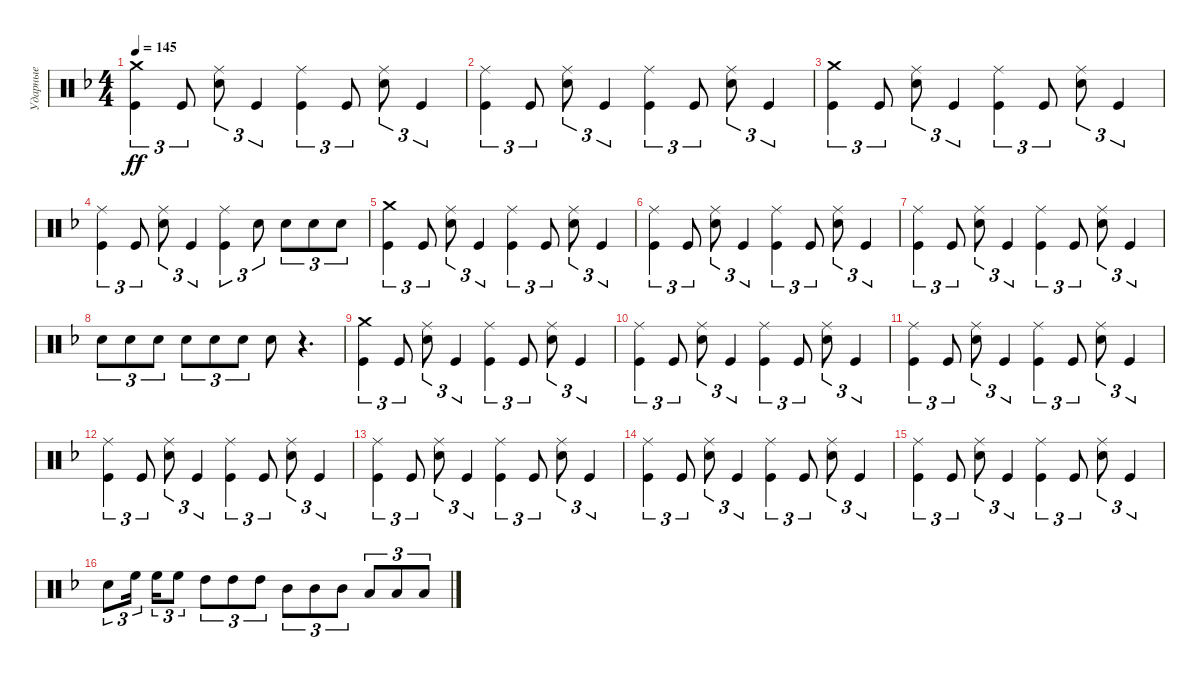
\track ("Ударные" "Ударные") {instrument percussion}
\staff {score}
\articulation defaults
\ts (4 4)
\tempo 145
\clef neutral
\ks dminor
("Crash medium (hit)" "Kick (hit)").4{tu (3 2) dy ff} "Kick (hit)".8{tu (3 2)} ("Ride (middle)" "Electric Snare (hit)").8{tu (3 2)} "Kick (hit)".4{tu (3 2)} ("Ride (middle)" "Kick (hit)").4{tu (3 2)} "Kick (hit)".8{tu (3 2)} ("Ride (middle)" "Electric Snare (hit)").8{tu (3 2)} "Kick (hit)".4{tu (3 2)} |
("Ride (middle)" "Kick (hit)").4{tu (3 2)} "Kick (hit)".8{tu (3 2)} ("Ride (middle)" "Electric Snare (hit)").8{tu (3 2)} "Kick (hit)".4{tu (3 2)} ("Ride (middle)" "Kick (hit)").4{tu (3 2)} "Kick (hit)".8{tu (3 2)} ("Ride (middle)" "Electric Snare (hit)").8{tu (3 2)} "Kick (hit)".4{tu (3 2)} |
("Crash medium (hit)" "Kick (hit)").4{tu (3 2)} "Kick (hit)".8{tu (3 2)} ("Ride (middle)" "Electric Snare (hit)").8{tu (3 2)} "Kick (hit)".4{tu (3 2)} ("Ride (middle)" "Kick (hit)").4{tu (3 2)} "Kick (hit)".8{tu (3 2)} ("Ride (middle)" "Electric Snare (hit)").8{tu (3 2)} "Kick (hit)".4{tu (3 2)} |
("Ride (middle)" "Kick (hit)").4{tu (3 2)} "Kick (hit)".8{tu (3 2)} ("Ride (middle)" "Electric Snare (hit)").8{tu (3 2)} "Kick (hit)".4{tu (3 2)} ("Ride (middle)" "Kick (hit)").4{tu (3 2)} "Electric Snare (hit)".8{tu (3 2)} "Electric Snare (hit)".8{tu (3 2)} "Electric Snare (hit)".8{tu (3 2)} "Electric Snare (hit)".8{tu (3 2)} |
("Crash medium (hit)" "Kick (hit)").4{tu (3 2)} "Kick (hit)".8{tu (3 2)} ("Ride (middle)" "Electric Snare (hit)").8{tu (3 2)} "Kick (hit)".4{tu (3 2)} ("Ride (middle)" "Kick (hit)").4{tu (3 2)} "Kick (hit)".8{tu (3 2)} ("Ride (middle)" "Electric Snare (hit)").8{tu (3 2)} "Kick (hit)".4{tu (3 2)} |
("Ride (middle)" "Kick (hit)").4{tu (3 2)} "Kick (hit)".8{tu (3 2)} ("Ride (middle)" "Electric Snare (hit)").8{tu (3 2)} "Kick (hit)".4{tu (3 2)} ("Ride (middle)" "Kick (hit)").4{tu (3 2)} "Kick (hit)".8{tu (3 2)} ("Ride (middle)" "Electric Snare (hit)").8{tu (3 2)} "Kick (hit)".4{tu (3 2)} |
("Ride (middle)" "Kick (hit)").4{tu (3 2)} "Kick (hit)".8{tu (3 2)} ("Ride (middle)" "Electric Snare (hit)").8{tu (3 2)} "Kick (hit)".4{tu (3 2)} ("Ride (middle)" "Kick (hit)").4{tu (3 2)} "Kick (hit)".8{tu (3 2)} ("Ride (middle)" "Electric Snare (hit)").8{tu (3 2)} "Kick (hit)".4{tu (3 2)} |
"Electric Snare (hit)".8{tu (3 2)} "Electric Snare (hit)".8{tu (3 2)} "Electric Snare (hit)".8{tu (3 2)} "Electric Snare (hit)".8{tu (3 2)} "Electric Snare (hit)".8{tu (3 2)} "Electric Snare (hit)".8{tu (3 2)} "Electric Snare (hit)".8 r.4{d} |
("Crash medium (hit)" "Kick (hit)").4{tu (3 2)} "Kick (hit)".8{tu (3 2)} ("Ride (middle)" "Electric Snare (hit)").8{tu (3 2)} "Kick (hit)".4{tu (3 2)} ("Ride (middle)" "Kick (hit)").4{tu (3 2)} "Kick (hit)".8{tu (3 2)} ("Ride (middle)" "Electric Snare (hit)").8{tu (3 2)} "Kick (hit)".4{tu (3 2)} |
("Ride (middle)" "Kick (hit)").4{tu (3 2)} "Kick (hit)".8{tu (3 2)} ("Ride (middle)" "Electric Snare (hit)").8{tu (3 2)} "Kick (hit)".4{tu (3 2)} ("Ride (middle)" "Kick (hit)").4{tu (3 2)} "Kick (hit)".8{tu (3 2)} ("Ride (middle)" "Electric Snare (hit)").8{tu (3 2)} "Kick (hit)".4{tu (3 2)} |
("Ride (middle)" "Kick (hit)").4{tu (3 2)} "Kick (hit)".8{tu (3 2)} ("Ride (middle)" "Electric Snare (hit)").8{tu (3 2)} "Kick (hit)".4{tu (3 2)} ("Ride (middle)" "Kick (hit)").4{tu (3 2)} "Kick (hit)".8{tu (3 2)} ("Ride (middle)" "Electric Snare (hit)").8{tu (3 2)} "Kick (hit)".4{tu (3 2)} |
("Ride (middle)" "Kick (hit)").4{tu (3 2)} "Kick (hit)".8{tu (3 2)} ("Ride (middle)" "Electric Snare (hit)").8{tu (3 2)} "Kick (hit)".4{tu (3 2)} ("Ride (middle)" "Kick (hit)").4{tu (3 2)} "Kick (hit)".8{tu (3 2)} ("Ride (middle)" "Electric Snare (hit)").8{tu (3 2)} "Kick (hit)".4{tu (3 2)} |
("Ride (middle)" "Kick (hit)").4{tu (3 2)} "Kick (hit)".8{tu (3 2)} ("Ride (middle)" "Electric Snare (hit)").8{tu (3 2)} "Kick (hit)".4{tu (3 2)} ("Ride (middle)" "Kick (hit)").4{tu (3 2)} "Kick (hit)".8{tu (3 2)} ("Ride (middle)" "Electric Snare (hit)").8{tu (3 2)} "Kick (hit)".4{tu (3 2)} |
("Ride (middle)" "Kick (hit)").4{tu (3 2)} "Kick (hit)".8{tu (3 2)} ("Ride (middle)" "Electric Snare (hit)").8{tu (3 2)} "Kick (hit)".4{tu (3 2)} ("Ride (middle)" "Kick (hit)").4{tu (3 2)} "Kick (hit)".8{tu (3 2)} ("Ride (middle)" "Electric Snare (hit)").8{tu (3 2)} "Kick (hit)".4{tu (3 2)} |
("Ride (middle)" "Kick (hit)").4{tu (3 2)} "Kick (hit)".8{tu (3 2)} ("Ride (middle)" "Electric Snare (hit)").8{tu (3 2)} "Kick (hit)".4{tu (3 2)} ("Ride (middle)" "Kick (hit)").4{tu (3 2)} "Kick (hit)".8{tu (3 2)} ("Ride (middle)" "Electric Snare (hit)").8{tu (3 2)} "Kick (hit)".4{tu (3 2)} |
"Electric Snare (hit)".8{tu (3 2)} "High Floor Tom (hit)".16{tu (3 2) beam splitsecondary} "High Floor Tom (hit)".16{tu (3 2)} "High Floor Tom (hit)".8{tu (3 2)} "High Tom (hit)".8{tu (3 2)} "High Tom (hit)".8{tu (3 2)} "High Tom (hit)".8{tu (3 2)} "Mid Tom (hit)".8{tu (3 2)} "Mid Tom (hit)".8{tu (3 2)} "Mid Tom (hit)".8{tu (3 2)} "Low Tom (hit)".8{tu (3 2)} "Low Tom (hit)".8{tu (3 2)} "Low Tom (hit)".8{tu (3 2)}
